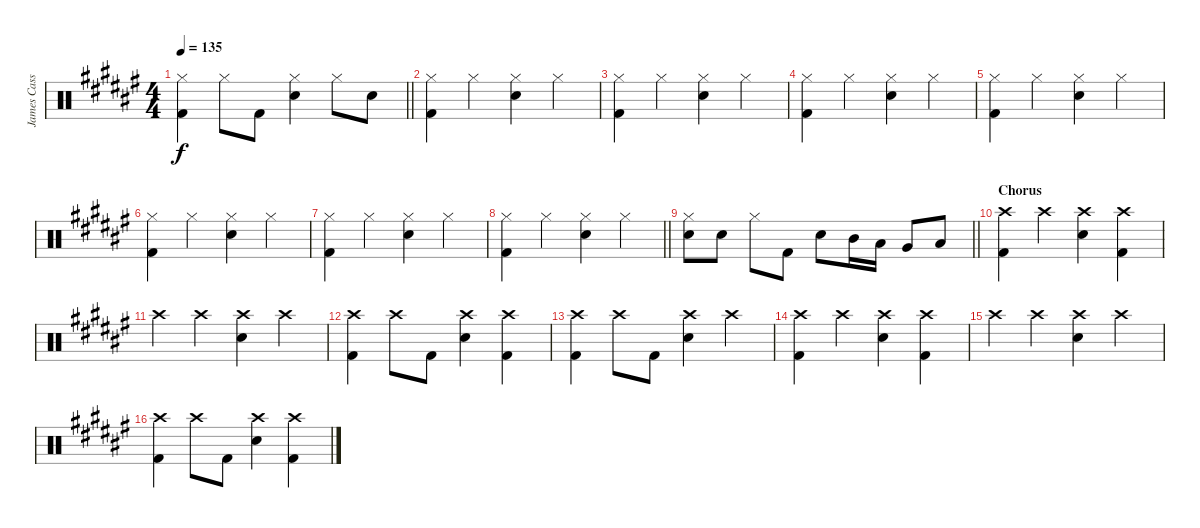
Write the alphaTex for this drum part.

\track ("James Cassells" "James Cass") {instrument percussion}
\staff {score}
\articulation defaults
\ts (4 4)
\tempo 135
\clef neutral
\barLineRight lightlight
\ks d#minor
("Hi-Hat (closed)" "Kick (hit) 2").4{dy f} "Hi-Hat (closed)".8 "Kick (hit) 2".8 ("Hi-Hat (closed)" "Electric Snare (hit)").4 "Hi-Hat (closed)".8 "Electric Snare (hit)".8 |
\section ("" "")
("Hi-Hat (closed)" "Kick (hit) 2").4 "Hi-Hat (closed)".4 ("Hi-Hat (closed)" "Electric Snare (hit)").4 "Hi-Hat (closed)".4 |
("Hi-Hat (closed)" "Kick (hit) 2").4 "Hi-Hat (closed)".4 ("Hi-Hat (closed)" "Electric Snare (hit)").4 "Hi-Hat (closed)".4 |
("Hi-Hat (closed)" "Kick (hit) 2").4 "Hi-Hat (closed)".4 ("Hi-Hat (closed)" "Electric Snare (hit)").4 "Hi-Hat (closed)".4 |
("Hi-Hat (closed)" "Kick (hit) 2").4 "Hi-Hat (closed)".4 ("Hi-Hat (closed)" "Electric Snare (hit)").4 "Hi-Hat (closed)".4 |
("Hi-Hat (closed)" "Kick (hit) 2").4 "Hi-Hat (closed)".4 ("Hi-Hat (closed)" "Electric Snare (hit)").4 "Hi-Hat (closed)".4 |
("Hi-Hat (closed)" "Kick (hit) 2").4 "Hi-Hat (closed)".4 ("Hi-Hat (closed)" "Electric Snare (hit)").4 "Hi-Hat (closed)".4 |
\barLineRight lightlight
("Hi-Hat (closed)" "Kick (hit) 2").4 "Hi-Hat (closed)".4 ("Hi-Hat (closed)" "Electric Snare (hit)").4 "Hi-Hat (closed)".4 |
\section ("" "")
\barLineRight lightlight
("Hi-Hat (closed)" "Electric Snare (hit)").8 "Electric Snare (hit)".8 "Hi-Hat (closed)".8 "Kick (hit) 2".8 "Electric Snare (hit)".8 "Mid Tom (hit)".16 "Low Tom (hit)".16 "Very Low Tom (hit)".8 "Low Floor Tom (hit)".8 |
\section ("" "Chorus")
("Crash high (hit)" "Kick (hit) 2").4 "Crash high (hit)".4 ("Crash high (hit)" "Electric Snare (hit)").4 ("Crash high (hit)" "Kick (hit) 2").4 |
"Crash high (hit)".4 "Crash high (hit)".4 ("Crash high (hit)" "Electric Snare (hit)").4 "Crash high (hit)".4 |
("Crash high (hit)" "Kick (hit) 2").4 "Crash high (hit)".8 "Kick (hit) 2".8 ("Crash high (hit)" "Electric Snare (hit)").4 ("Crash high (hit)" "Kick (hit) 2").4 |
("Crash high (hit)" "Kick (hit) 2").4 "Crash high (hit)".8 "Kick (hit) 2".8 ("Crash high (hit)" "Electric Snare (hit)").4 "Crash high (hit)".4 |
("Crash high (hit)" "Kick (hit) 2").4 "Crash high (hit)".4 ("Crash high (hit)" "Electric Snare (hit)").4 ("Crash high (hit)" "Kick (hit) 2").4 |
"Crash high (hit)".4 "Crash high (hit)".4 ("Crash high (hit)" "Electric Snare (hit)").4 "Crash high (hit)".4 |
("Crash high (hit)" "Kick (hit) 2").4 "Crash high (hit)".8 "Kick (hit) 2".8 ("Crash high (hit)" "Electric Snare (hit)").4 ("Crash high (hit)" "Kick (hit) 2").4
